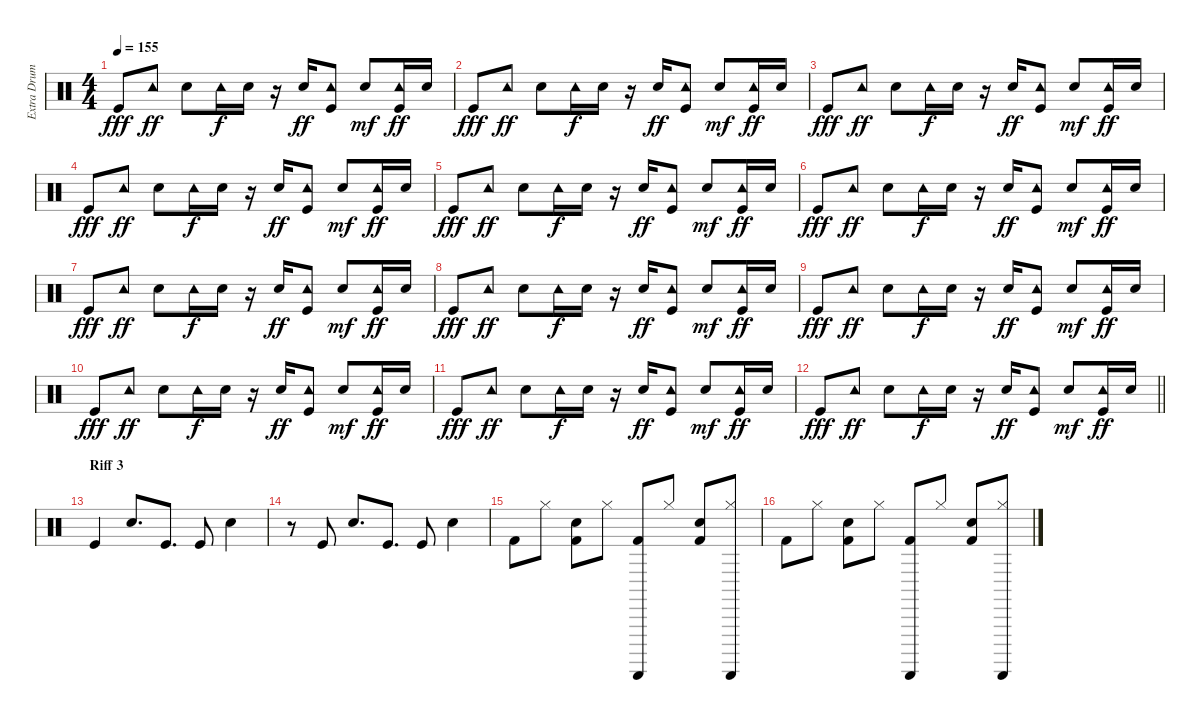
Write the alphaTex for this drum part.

\track ("Extra Drums" "Extra Drum") {instrument percussion}
\staff {score}
\articulation defaults
\ts (4 4)
\tempo 155
\clef neutral
\ks c "Kick (hit)".8{dy fff} "Tambourine (hit)".8{dy ff} "Electric Snare (hit)".8 "Tambourine (hit)".16{dy f} "Electric Snare (hit)".16
r.16 "Electric Snare (hit)".16{dy ff} ("Kick (hit)" "Tambourine (hit)").8 "Electric Snare (hit)".8{dy mf} ("Kick (hit)" "Tambourine (hit)").16{dy ff} "Electric Snare (hit)".16 |
"Kick (hit)".8{dy fff} "Tambourine (hit)".8{dy ff} "Electric Snare (hit)".8 "Tambourine (hit)".16{dy f} "Electric Snare (hit)".16 r.16 "Electric Snare (hit)".16{dy ff} ("Kick (hit)" "Tambourine (hit)").8 "Electric Snare (hit)".8{dy mf} ("Kick (hit)" "Tambourine (hit)").16{dy ff} "Electric Snare (hit)".16 |
"Kick (hit)".8{dy fff} "Tambourine (hit)".8{dy ff} "Electric Snare (hit)".8 "Tambourine (hit)".16{dy f} "Electric Snare (hit)".16 r.16 "Electric Snare (hit)".16{dy ff} ("Kick (hit)" "Tambourine (hit)").8 "Electric Snare (hit)".8{dy mf} ("Kick (hit)" "Tambourine (hit)").16{dy ff} "Electric Snare (hit)".16 |
"Kick (hit)".8{dy fff} "Tambourine (hit)".8{dy ff} "Electric Snare (hit)".8 "Tambourine (hit)".16{dy f} "Electric Snare (hit)".16 r.16 "Electric Snare (hit)".16{dy ff} ("Kick (hit)" "Tambourine (hit)").8 "Electric Snare (hit)".8{dy mf} ("Kick (hit)" "Tambourine (hit)").16{dy ff} "Electric Snare (hit)".16 |
"Kick (hit)".8{dy fff} "Tambourine (hit)".8{dy ff} "Electric Snare (hit)".8 "Tambourine (hit)".16{dy f} "Electric Snare (hit)".16 r.16 "Electric Snare (hit)".16{dy ff} ("Kick (hit)" "Tambourine (hit)").8 "Electric Snare (hit)".8{dy mf} ("Kick (hit)" "Tambourine (hit)").16{dy ff} "Electric Snare (hit)".16 |
"Kick (hit)".8{dy fff} "Tambourine (hit)".8{dy ff} "Electric Snare (hit)".8 "Tambourine (hit)".16{dy f} "Electric Snare (hit)".16 r.16 "Electric Snare (hit)".16{dy ff} ("Kick (hit)" "Tambourine (hit)").8 "Electric Snare (hit)".8{dy mf} ("Kick (hit)" "Tambourine (hit)").16{dy ff} "Electric Snare (hit)".16 |
"Kick (hit)".8{dy fff} "Tambourine (hit)".8{dy ff} "Electric Snare (hit)".8 "Tambourine (hit)".16{dy f} "Electric Snare (hit)".16 r.16 "Electric Snare (hit)".16{dy ff} ("Kick (hit)" "Tambourine (hit)").8 "Electric Snare (hit)".8{dy mf} ("Kick (hit)" "Tambourine (hit)").16{dy ff} "Electric Snare (hit)".16 |
"Kick (hit)".8{dy fff} "Tambourine (hit)".8{dy ff} "Electric Snare (hit)".8 "Tambourine (hit)".16{dy f} "Electric Snare (hit)".16 r.16 "Electric Snare (hit)".16{dy ff} ("Kick (hit)" "Tambourine (hit)").8 "Electric Snare (hit)".8{dy mf} ("Kick (hit)" "Tambourine (hit)").16{dy ff} "Electric Snare (hit)".16 |
"Kick (hit)".8{dy fff} "Tambourine (hit)".8{dy ff} "Electric Snare (hit)".8 "Tambourine (hit)".16{dy f} "Electric Snare (hit)".16 r.16 "Electric Snare (hit)".16{dy ff} ("Kick (hit)" "Tambourine (hit)").8 "Electric Snare (hit)".8{dy mf} ("Kick (hit)" "Tambourine (hit)").16{dy ff} "Electric Snare (hit)".16 |
"Kick (hit)".8{dy fff} "Tambourine (hit)".8{dy ff} "Electric Snare (hit)".8 "Tambourine (hit)".16{dy f} "Electric Snare (hit)".16 r.16 "Electric Snare (hit)".16{dy ff} ("Kick (hit)" "Tambourine (hit)").8 "Electric Snare (hit)".8{dy mf} ("Kick (hit)" "Tambourine (hit)").16{dy ff} "Electric Snare (hit)".16 |
"Kick (hit)".8{dy fff} "Tambourine (hit)".8{dy ff} "Electric Snare (hit)".8 "Tambourine (hit)".16{dy f} "Electric Snare (hit)".16 r.16 "Electric Snare (hit)".16{dy ff} ("Kick (hit)" "Tambourine (hit)").8 "Electric Snare (hit)".8{dy mf} ("Kick (hit)" "Tambourine (hit)").16{dy ff} "Electric Snare (hit)".16 |
\barLineRight lightlight "Kick (hit)".8{dy fff} "Tambourine (hit)".8{dy ff} "Electric Snare (hit)".8 "Tambourine (hit)".16{dy f} "Electric Snare (hit)".16
r.16 "Electric Snare (hit)".16{dy ff} ("Kick (hit)" "Tambourine (hit)").8 "Electric Snare (hit)".8{dy mf} ("Kick (hit)" "Tambourine (hit)").16{dy ff} "Electric Snare (hit)".16 |
\section ("" "Riff 3")
"Kick (hit)".4 "Electric Snare (hit)".8{d} "Kick (hit)".8{d} "Kick (hit)".8 "Electric Snare (hit)".4 |
r.8 "Kick (hit)".8 "Electric Snare (hit)".8{d} "Kick (hit)".8{d} "Kick (hit)".8 "Electric Snare (hit)".4 |
"Kick (hit) 2".8 "Hi-Hat (closed)".8 ("Kick (hit) 2" "Electric Snare (hit)").8 "Hi-Hat (closed)".8 ("Kick (hit) 2" "Guiro (scrap-return)").8 "Hi-Hat (closed)".8 ("Kick (hit) 2" "Electric Snare (hit)").8 ("Hi-Hat (closed)" "Guiro (scrap-return)").8 |
"Kick (hit) 2".8 "Hi-Hat (closed)".8 ("Kick (hit) 2" "Electric Snare (hit)").8 "Hi-Hat (closed)".8 ("Kick (hit) 2" "Guiro (scrap-return)").8 "Hi-Hat (closed)".8 ("Kick (hit) 2" "Electric Snare (hit)").8 ("Hi-Hat (closed)" "Guiro (scrap-return)").8
